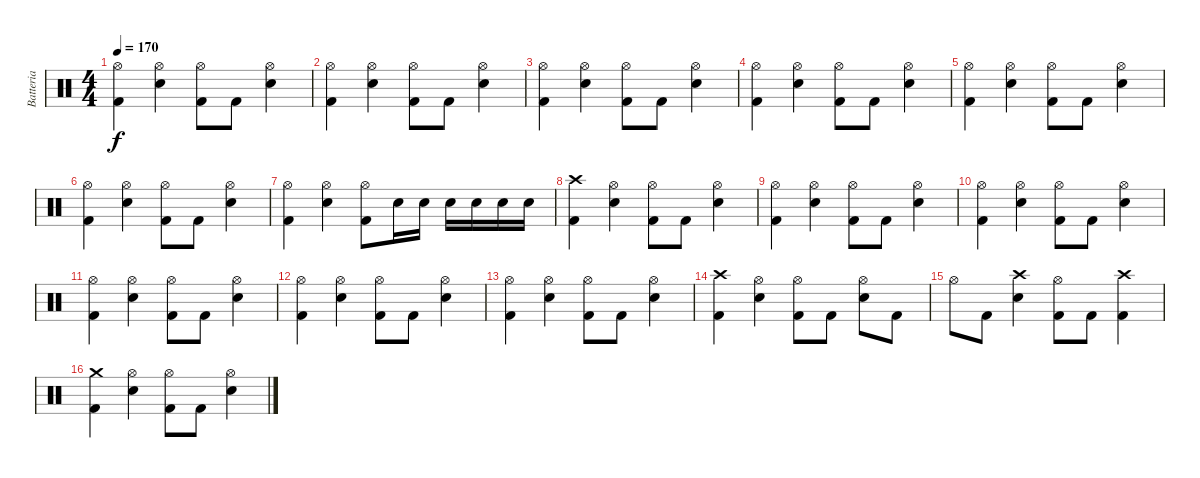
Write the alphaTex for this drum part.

\track ("Batteria" "Batteria") {instrument percussion}
\staff {score}
\articulation defaults
\ts (4 4)
\tempo 170
\clef neutral
\ks c
("Hi-Hat (open)" "Kick (hit) 2").4{dy f} ("Hi-Hat (open)" "Snare (hit) 2").4 ("Hi-Hat (open)" "Kick (hit) 2").8 "Kick (hit) 2".8 ("Hi-Hat (open)" "Snare (hit) 2").4 |
("Hi-Hat (open)" "Kick (hit) 2").4 ("Hi-Hat (open)" "Snare (hit) 2").4 ("Hi-Hat (open)" "Kick (hit) 2").8 "Kick (hit) 2".8 ("Hi-Hat (open)" "Snare (hit) 2").4 |
("Hi-Hat (open)" "Kick (hit) 2").4 ("Hi-Hat (open)" "Snare (hit) 2").4 ("Hi-Hat (open)" "Kick (hit) 2").8 "Kick (hit) 2".8 ("Hi-Hat (open)" "Snare (hit) 2").4 |
("Hi-Hat (open)" "Kick (hit) 2").4 ("Hi-Hat (open)" "Snare (hit) 2").4 ("Hi-Hat (open)" "Kick (hit) 2").8 "Kick (hit) 2".8 ("Hi-Hat (open)" "Snare (hit) 2").4 |
("Hi-Hat (open)" "Kick (hit) 2").4 ("Hi-Hat (open)" "Snare (hit) 2").4 ("Hi-Hat (open)" "Kick (hit) 2").8 "Kick (hit) 2".8 ("Hi-Hat (open)" "Snare (hit) 2").4 |
("Hi-Hat (open)" "Kick (hit) 2").4 ("Hi-Hat (open)" "Snare (hit) 2").4 ("Hi-Hat (open)" "Kick (hit) 2").8 "Kick (hit) 2".8 ("Hi-Hat (open)" "Snare (hit) 2").4 |
("Hi-Hat (open)" "Kick (hit) 2").4 ("Hi-Hat (open)" "Snare (hit) 2").4 ("Hi-Hat (open)" "Kick (hit) 2").8 "Snare (hit) 2".16 "Snare (hit) 2".16 "Snare (hit) 2".16 "Snare (hit) 2".16 "Snare (hit) 2".16 "Snare (hit) 2".16 |
("Crash high (hit)" "Kick (hit) 2").4 ("Hi-Hat (open)" "Snare (hit) 2").4 ("Hi-Hat (open)" "Kick (hit) 2").8 "Kick (hit) 2".8 ("Hi-Hat (open)" "Snare (hit) 2").4 |
("Hi-Hat (open)" "Kick (hit) 2").4 ("Hi-Hat (open)" "Snare (hit) 2").4 ("Hi-Hat (open)" "Kick (hit) 2").8 "Kick (hit) 2".8 ("Hi-Hat (open)" "Snare (hit) 2").4 |
("Hi-Hat (open)" "Kick (hit) 2").4 ("Hi-Hat (open)" "Snare (hit) 2").4 ("Hi-Hat (open)" "Kick (hit) 2").8 "Kick (hit) 2".8 ("Hi-Hat (open)" "Snare (hit) 2").4 |
("Hi-Hat (open)" "Kick (hit) 2").4 ("Hi-Hat (open)" "Snare (hit) 2").4 ("Hi-Hat (open)" "Kick (hit) 2").8 "Kick (hit) 2".8 ("Hi-Hat (open)" "Snare (hit) 2").4 |
("Hi-Hat (open)" "Kick (hit) 2").4 ("Hi-Hat (open)" "Snare (hit) 2").4 ("Hi-Hat (open)" "Kick (hit) 2").8 "Kick (hit) 2".8 ("Hi-Hat (open)" "Snare (hit) 2").4 |
("Hi-Hat (open)" "Kick (hit) 2").4 ("Hi-Hat (open)" "Snare (hit) 2").4 ("Hi-Hat (open)" "Kick (hit) 2").8 "Kick (hit) 2".8 ("Hi-Hat (open)" "Snare (hit) 2").4 |
("Crash high (hit)" "Kick (hit) 2").4 ("Hi-Hat (open)" "Snare (hit) 2").4 ("Hi-Hat (open)" "Kick (hit) 2").8 "Kick (hit) 2".8 ("Hi-Hat (open)" "Snare (hit) 2").8 "Kick (hit) 2".8 |
"Hi-Hat (open)".8 "Kick (hit) 2".8 ("Crash high (hit)" "Snare (hit) 2").4 ("Hi-Hat (open)" "Kick (hit) 2").8 "Kick (hit) 2".8 ("Crash high (hit)" "Kick (hit) 2").4 |
("Crash medium (hit)" "Kick (hit) 2").4 ("Hi-Hat (open)" "Snare (hit) 2").4 ("Hi-Hat (open)" "Kick (hit) 2").8 "Kick (hit) 2".8 ("Hi-Hat (open)" "Snare (hit) 2").4
